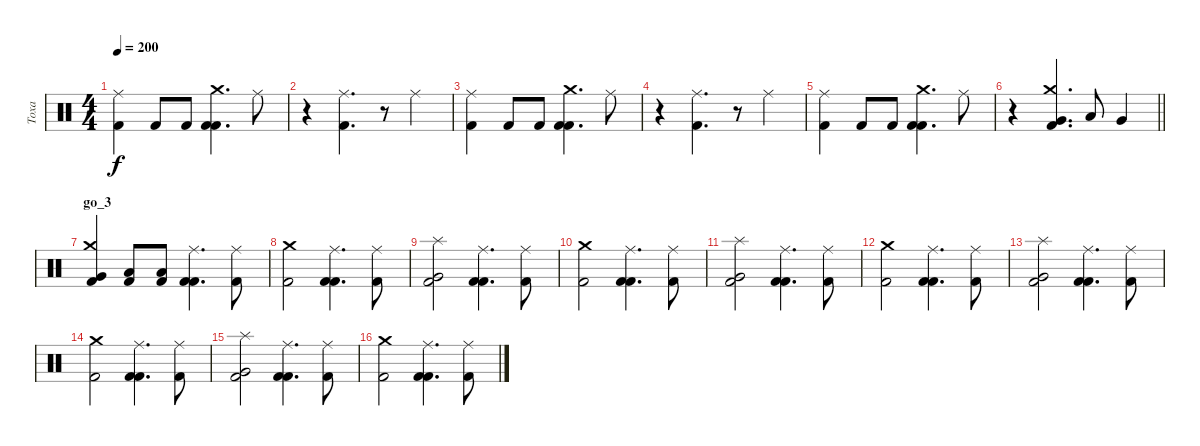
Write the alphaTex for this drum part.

\track ("Toxa" "Toxa") {instrument percussion}
\staff {score}
\articulation defaults
\ts (4 4)
\tempo 200
\clef neutral
\ks c
("Kick (hit) 2" "Ride (middle)").4{dy f} "Kick (hit) 2".8 "Kick (hit) 2".8 ("Kick (hit) 2" "Crash medium (hit)" "Kick (hit) 2").4{d} "Ride (middle)".8 |
r.4 ("Kick (hit) 2" "Ride (middle)").4{d} r.8 "Ride (middle)".4 |
("Kick (hit) 2" "Ride (middle)").4 "Kick (hit) 2".8 "Kick (hit) 2".8 ("Kick (hit) 2" "Crash medium (hit)" "Kick (hit) 2").4{d} "Ride (middle)".8 |
r.4 ("Kick (hit) 2" "Ride (middle)").4{d} r.8 "Ride (middle)".4 |
("Kick (hit) 2" "Ride (middle)").4 "Kick (hit) 2".8 "Kick (hit) 2".8 ("Kick (hit) 2" "Crash medium (hit)" "Kick (hit) 2").4{d} "Ride (middle)".8 |
\barLineRight lightlight
r.4 ("Kick (hit) 2" "Very Low Tom (hit)" "Crash medium (hit)").4{d} "Low Tom (hit)".8 "Very Low Tom (hit)".4 |
\section ("" "go_3")
("Kick (hit) 2" "Very Low Tom (hit)" "Crash medium (hit)").4 ("Low Tom (hit)" "Kick (hit) 2").8 ("Low Tom (hit)" "Kick (hit) 2").8 ("Kick (hit) 2" "Ride (middle)" "Kick (hit) 2").4{d} ("Ride (middle)" "Kick (hit) 2").8 |
("Crash medium (hit)" "Kick (hit) 2").2 ("Kick (hit) 2" "Ride (middle)" "Kick (hit) 2").4{d} ("Ride (middle)" "Kick (hit) 2").8 |
("Kick (hit) 2" "Very Low Tom (hit)" "Splash (hit)").2 ("Kick (hit) 2" "Ride (middle)" "Kick (hit) 2").4{d} ("Ride (middle)" "Kick (hit) 2").8 |
("Crash medium (hit)" "Kick (hit) 2").2 ("Kick (hit) 2" "Ride (middle)" "Kick (hit) 2").4{d} ("Ride (middle)" "Kick (hit) 2").8 |
("Kick (hit) 2" "Very Low Tom (hit)" "Splash (hit)").2 ("Kick (hit) 2" "Ride (middle)" "Kick (hit) 2").4{d} ("Ride (middle)" "Kick (hit) 2").8 |
("Crash medium (hit)" "Kick (hit) 2").2 ("Kick (hit) 2" "Ride (middle)" "Kick (hit) 2").4{d} ("Ride (middle)" "Kick (hit) 2").8 |
("Kick (hit) 2" "Very Low Tom (hit)" "Splash (hit)").2 ("Kick (hit) 2" "Ride (middle)" "Kick (hit) 2").4{d} ("Ride (middle)" "Kick (hit) 2").8 |
("Crash medium (hit)" "Kick (hit) 2").2 ("Kick (hit) 2" "Ride (middle)" "Kick (hit) 2").4{d} ("Ride (middle)" "Kick (hit) 2").8 |
("Kick (hit) 2" "Very Low Tom (hit)" "Splash (hit)").2 ("Kick (hit) 2" "Ride (middle)" "Kick (hit) 2").4{d} ("Ride (middle)" "Kick (hit) 2").8 |
("Crash medium (hit)" "Kick (hit) 2").2 ("Kick (hit) 2" "Ride (middle)" "Kick (hit) 2").4{d} ("Ride (middle)" "Kick (hit) 2").8
